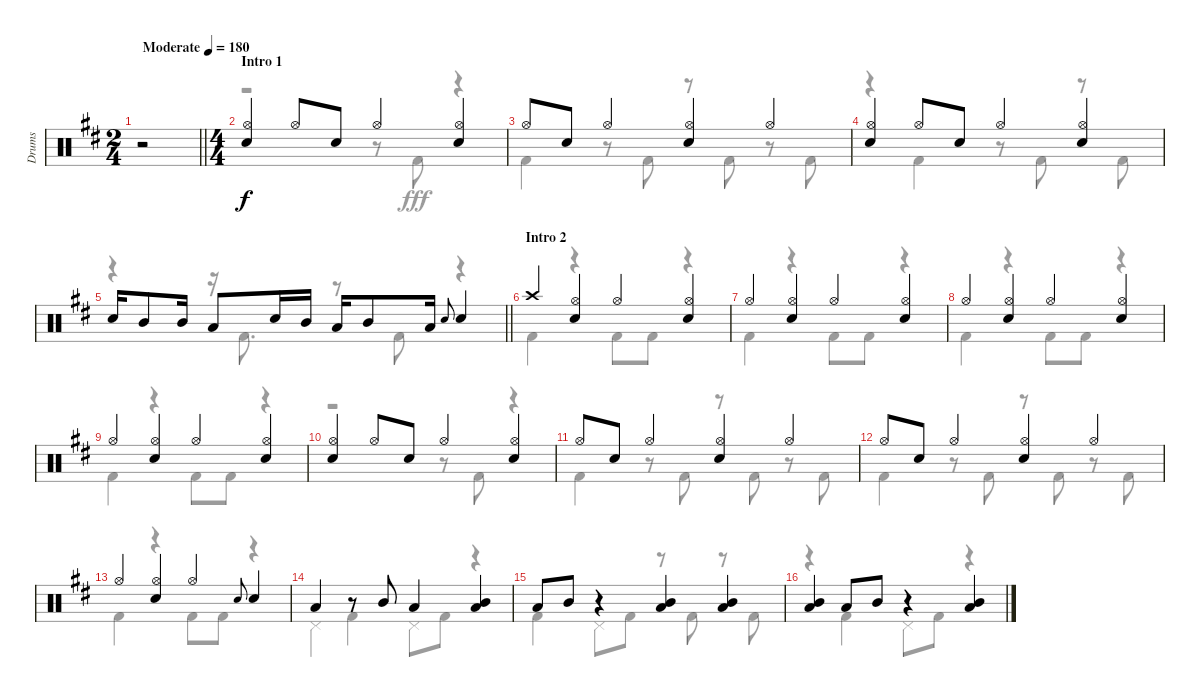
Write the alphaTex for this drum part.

\track ("Drums" "Drums") {instrument percussion}
\staff {score}
\articulation defaults
\voice
\ts (2 4)
\tempo (180 "Moderate")
\clef neutral
\barLineRight lightlight
\ks d
r.2{dy f} |
\ts (4 4)
\section ("" "Intro 1")
("Hi-Hat (open)" "Snare (hit) 2").4 "Hi-Hat (open)".8 "Snare (hit) 2".8 "Hi-Hat (open)".4 ("Hi-Hat (open)" "Snare (hit) 2").4 |
"Hi-Hat (open)".8 "Snare (hit) 2".8 "Hi-Hat (open)".4 ("Hi-Hat (open)" "Snare (hit) 2").4 "Hi-Hat (open)".4 |
("Hi-Hat (open)" "Snare (hit) 2").4 "Hi-Hat (open)".8 "Snare (hit) 2".8 "Hi-Hat (open)".4 ("Hi-Hat (open)" "Snare (hit) 2").4 |
\barLineRight lightlight "Snare (hit) 2".16 "Mid Tom (hit)".8 "Mid Tom (hit)".16 "Low Tom (hit)".8 "Snare (hit) 2".16 "Mid Tom (hit)".16 "Low Tom (hit)".16 "Mid Tom (hit)".8 "Low Tom (hit)".16 "Snare (hit) 2".8{gr onbeat} "Snare (hit) 2".4
|
\section ("" "Intro 2")
"Crash high (hit)".4 ("Hi-Hat (open)" "Snare (hit) 2").4 "Hi-Hat (open)".4 ("Hi-Hat (open)" "Snare (hit) 2").4 |
"Hi-Hat (open)".4 ("Hi-Hat (open)" "Snare (hit) 2").4 "Hi-Hat (open)".4 ("Hi-Hat (open)" "Snare (hit) 2").4 |
"Hi-Hat (open)".4 ("Hi-Hat (open)" "Snare (hit) 2").4 "Hi-Hat (open)".4 ("Hi-Hat (open)" "Snare (hit) 2").4 |
"Hi-Hat (open)".4 ("Hi-Hat (open)" "Snare (hit) 2").4 "Hi-Hat (open)".4 ("Hi-Hat (open)" "Snare (hit) 2").4 |
("Hi-Hat (open)" "Snare (hit) 2").4 "Hi-Hat (open)".8 "Snare (hit) 2".8 "Hi-Hat (open)".4 ("Hi-Hat (open)" "Snare (hit) 2").4 |
"Hi-Hat (open)".8 "Snare (hit) 2".8 "Hi-Hat (open)".4 ("Hi-Hat (open)" "Snare (hit) 2").4 "Hi-Hat (open)".4 |
"Hi-Hat (open)".8 "Snare (hit) 2".8 "Hi-Hat (open)".4 ("Hi-Hat (open)" "Snare (hit) 2").4 "Hi-Hat (open)".4 |
"Hi-Hat (open)".4 ("Hi-Hat (open)" "Snare (hit) 2").4 "Hi-Hat (open)".4 "Snare (hit) 2".8{gr onbeat} "Snare (hit) 2".4 |
"Low Tom (hit)".4 r.8 "Mid Tom (hit)".8 "Low Tom (hit)".4 ("Mid Tom (hit)" "Low Tom (hit)").4 |
"Low Tom (hit)".8 "Mid Tom (hit)".8 r.4 ("Mid Tom (hit)" "Low Tom (hit)").4 ("Mid Tom (hit)" "Low Tom (hit)").4 |
("Mid Tom (hit)" "Low Tom (hit)").4 "Low Tom (hit)".8 "Mid Tom (hit)".8 r.4 ("Mid Tom (hit)" "Low Tom (hit)").4
\voice
\clef neutral
\ottava regular
\simile none
\barLineRight lightlight
\ks d
r.2{dy fff} |
r.2 r.8 "Kick (hit) 2".8 r.4 |
"Kick (hit) 2".4 r.8 "Kick (hit) 2".8 r.8 "Kick (hit) 2".8 r.8 "Kick (hit) 2".8 |
r.4 "Kick (hit) 2".4 r.8 "Kick (hit) 2".8 r.8 "Kick (hit) 2".8 |
\barLineRight lightlight
r.4 r.16 "Kick (hit) 2".8{d} r.8 "Kick (hit) 2".8 r.4 |
"Kick (hit) 2".4 r.4 "Kick (hit) 2".8 "Kick (hit) 2".8 r.4 |
"Kick (hit) 2".4 r.4 "Kick (hit) 2".8 "Kick (hit) 2".8 r.4 |
"Kick (hit) 2".4 r.4 "Kick (hit) 2".8 "Kick (hit) 2".8 r.4 |
"Kick (hit) 2".4 r.4 "Kick (hit) 2".8 "Kick (hit) 2".8 r.4 |
r.2 r.8 "Kick (hit) 2".8 r.4 |
"Kick (hit) 2".4 r.8 "Kick (hit) 2".8 r.8 "Kick (hit) 2".8 r.8 "Kick (hit) 2".8 |
"Kick (hit) 2".4 r.8 "Kick (hit) 2".8 r.8 "Kick (hit) 2".8 r.8 "Kick (hit) 2".8 |
"Kick (hit) 2".4 r.4 "Kick (hit) 2".8 "Kick (hit) 2".8 r.4 |
"Pedal Hi-Hat (hit)".4 "Kick (hit) 2".4 "Pedal Hi-Hat (hit)".8 "Kick (hit) 2".8 r.4 |
"Kick (hit) 2".4 "Pedal Hi-Hat (hit)".8 "Kick (hit) 2".8 r.8 "Kick (hit) 2".8 r.8 "Kick (hit) 2".8 |
r.4 "Kick (hit) 2".4 "Pedal Hi-Hat (hit)".8 "Kick (hit) 2".8 r.4
